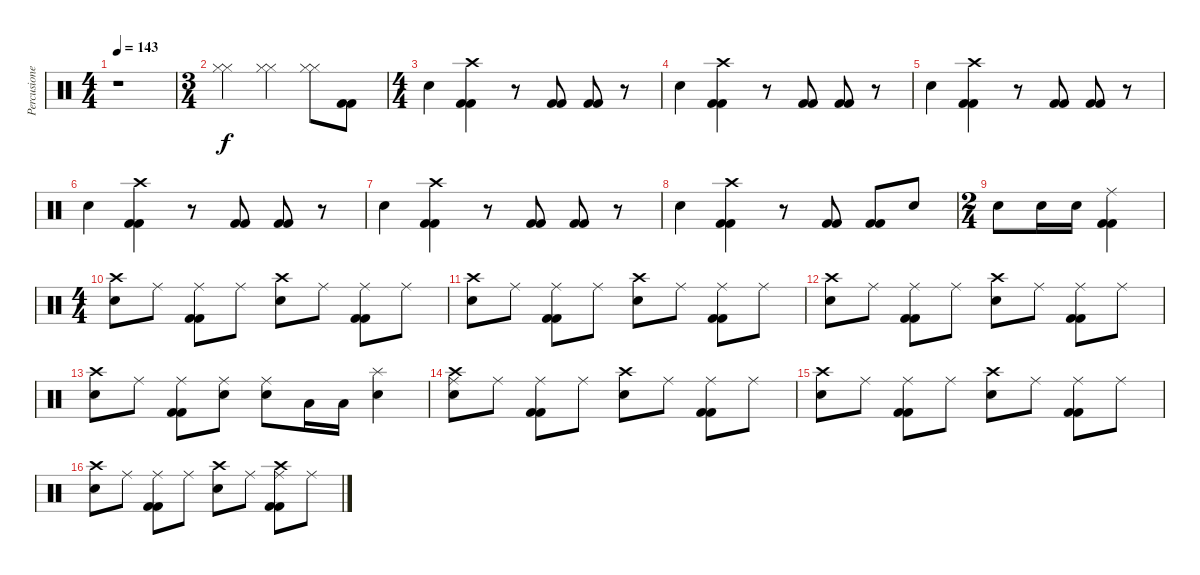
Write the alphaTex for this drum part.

\track ("Percusiones" "Percusione") {instrument percussion}
\staff {score}
\articulation defaults
\ts (4 4)
\tempo 143
\clef neutral
\ks c
r.1{dy f} |
\ts (3 4)
("Hi-Hat (closed)" "Hi-Hat (closed)").4 ("Hi-Hat (closed)" "Hi-Hat (closed)").4 ("Hi-Hat (closed)" "Hi-Hat (closed)").8 ("Kick (hit) 2" "Kick (hit) 2").8 |
\ts (4 4)
"Snare (hit) 2".4 ("Crash high (hit)" "Kick (hit) 2" "Kick (hit) 2").4 r.8 ("Kick (hit) 2" "Kick (hit) 2").8 ("Kick (hit) 2" "Kick (hit) 2").8 r.8 |
"Snare (hit) 2".4 ("Crash high (hit)" "Kick (hit) 2" "Kick (hit) 2").4 r.8 ("Kick (hit) 2" "Kick (hit) 2").8 ("Kick (hit) 2" "Kick (hit) 2").8 r.8 |
"Snare (hit) 2".4 ("Crash high (hit)" "Kick (hit) 2" "Kick (hit) 2").4 r.8 ("Kick (hit) 2" "Kick (hit) 2").8 ("Kick (hit) 2" "Kick (hit) 2").8 r.8 |
"Snare (hit) 2".4 ("Crash high (hit)" "Kick (hit) 2" "Kick (hit) 2").4 r.8 ("Kick (hit) 2" "Kick (hit) 2").8 ("Kick (hit) 2" "Kick (hit) 2").8 r.8 |
"Snare (hit) 2".4 ("Crash high (hit)" "Kick (hit) 2" "Kick (hit) 2").4 r.8 ("Kick (hit) 2" "Kick (hit) 2").8 ("Kick (hit) 2" "Kick (hit) 2").8 r.8 |
"Snare (hit) 2".4 ("Crash high (hit)" "Kick (hit) 2" "Kick (hit) 2").4 r.8 ("Kick (hit) 2" "Kick (hit) 2").8 ("Kick (hit) 2" "Kick (hit) 2").8 "Electric Snare (hit)".8 |
\ts (2 4)
"Electric Snare (hit)".8 "Electric Snare (hit)".16 "Electric Snare (hit)".16 ("Ride (middle)" "Kick (hit) 2" "Kick (hit) 2").4 |
\ts (4 4)
("Crash high (hit)" "Snare (hit) 2").8 "Ride (middle)".8 ("Ride (middle)" "Kick (hit) 2" "Kick (hit) 2").8 "Ride (middle)".8 ("Crash high (hit)" "Snare (hit) 2").8 "Ride (middle)".8 ("Ride (middle)" "Kick (hit) 2" "Kick (hit) 2").8 "Ride (middle)".8 |
("Crash high (hit)" "Snare (hit) 2").8 "Ride (middle)".8 ("Ride (middle)" "Kick (hit) 2" "Kick (hit) 2").8 "Ride (middle)".8 ("Crash high (hit)" "Snare (hit) 2").8 "Ride (middle)".8 ("Ride (middle)" "Kick (hit) 2" "Kick (hit) 2").8 "Ride (middle)".8 |
("Crash high (hit)" "Snare (hit) 2").8 "Ride (middle)".8 ("Ride (middle)" "Kick (hit) 2" "Kick (hit) 2").8 "Ride (middle)".8 ("Crash high (hit)" "Snare (hit) 2").8 "Ride (middle)".8 ("Ride (middle)" "Kick (hit) 2" "Kick (hit) 2").8 "Ride (middle)".8 |
("Crash high (hit)" "Snare (hit) 2").8 "Ride (middle)".8 ("Ride (middle)" "Kick (hit) 2" "Kick (hit) 2").8 ("Ride (middle)" "Snare (hit) 2").8 ("Ride (middle)" "Snare (hit) 2").8 "Low Tom (hit)".16 "Low Tom (hit)".16 ("Snare (hit) 2" "Splash (hit)").4 |
("Ride (middle)" "Snare (hit) 2" "Crash high (hit)").8 "Ride (middle)".8 ("Ride (middle)" "Kick (hit) 2" "Kick (hit) 2").8 "Ride (middle)".8 ("Crash high (hit)" "Snare (hit) 2").8 "Ride (middle)".8 ("Ride (middle)" "Kick (hit) 2" "Kick (hit) 2").8 "Ride (middle)".8 |
("Crash high (hit)" "Snare (hit) 2").8 "Ride (middle)".8 ("Ride (middle)" "Kick (hit) 2" "Kick (hit) 2").8 "Ride (middle)".8 ("Crash high (hit)" "Snare (hit) 2").8 "Ride (middle)".8 ("Ride (middle)" "Kick (hit) 2" "Kick (hit) 2").8 "Ride (middle)".8 |
("Crash high (hit)" "Snare (hit) 2").8 "Ride (middle)".8 ("Ride (middle)" "Kick (hit) 2" "Kick (hit) 2").8 "Ride (middle)".8 ("Crash high (hit)" "Snare (hit) 2").8 "Ride (middle)".8 ("Ride (middle)" "Kick (hit) 2" "Kick (hit) 2" "Crash high (hit)").8 "Ride (middle)".8
